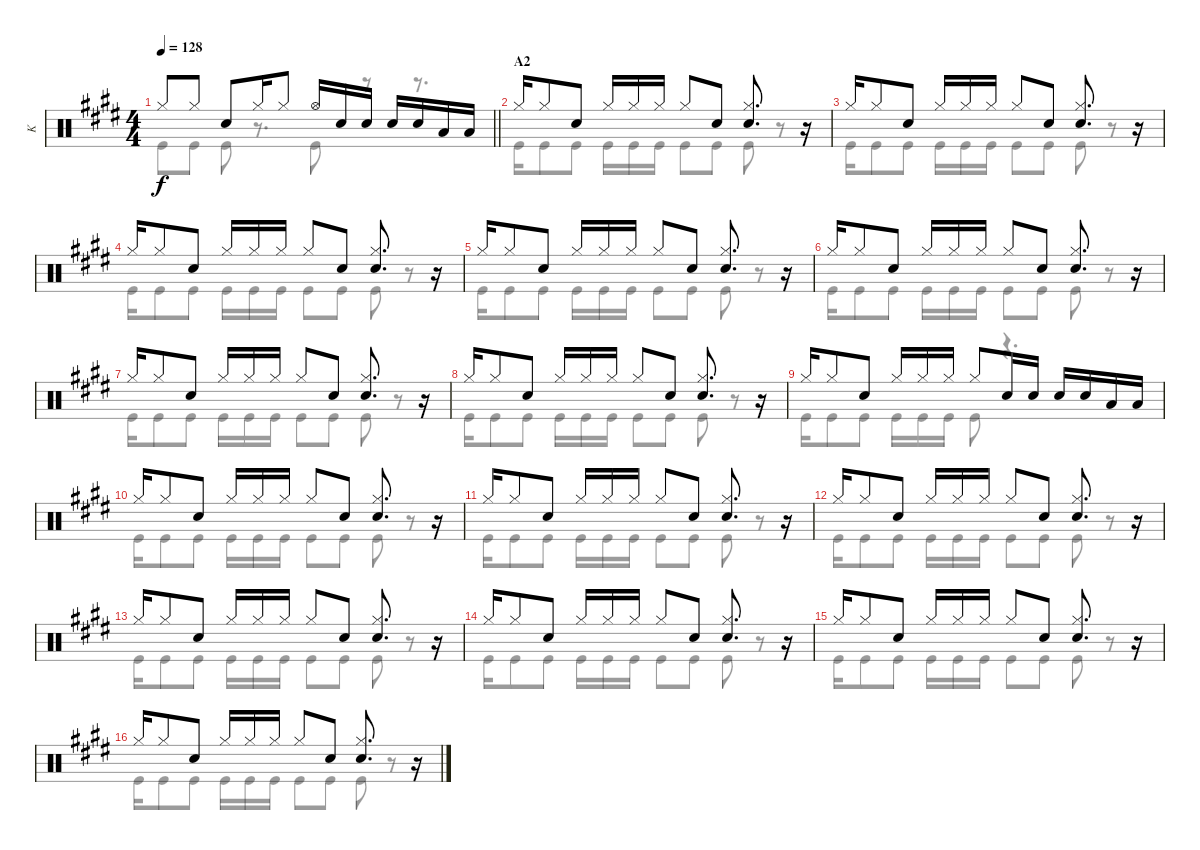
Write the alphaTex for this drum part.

\track ("K" "K") {instrument percussion}
\staff {score}
\articulation defaults
\voice
\ts (4 4)
\tempo 128
\clef neutral
\barLineRight lightlight
\ks e "Hi-Hat (closed)".8{dy f} "Hi-Hat (closed)".8 "Snare (hit) 2".8 "Hi-Hat (closed)".16 "Hi-Hat (closed)".8 "Hi-Hat (open)".16 "Snare (hit) 2".16 "Snare (hit) 2".16 "Snare (hit) 2".16 "Snare (hit) 2".16 "Low Tom (hit)".16 "Low Tom (hit)".16
|
\section ("" "A2")
"Hi-Hat (closed)".16 "Hi-Hat (closed)".8 "Snare (hit) 2".8 "Hi-Hat (closed)".16 "Hi-Hat (closed)".16 "Hi-Hat (closed)".16 "Hi-Hat (closed)".8 "Snare (hit) 2".8 ("Hi-Hat (closed)" "Snare (hit) 2").8{d} r.16 |
"Hi-Hat (closed)".16 "Hi-Hat (closed)".8 "Snare (hit) 2".8 "Hi-Hat (closed)".16 "Hi-Hat (closed)".16 "Hi-Hat (closed)".16 "Hi-Hat (closed)".8 "Snare (hit) 2".8 ("Hi-Hat (closed)" "Snare (hit) 2").8{d} r.16 |
"Hi-Hat (closed)".16 "Hi-Hat (closed)".8 "Snare (hit) 2".8 "Hi-Hat (closed)".16 "Hi-Hat (closed)".16 "Hi-Hat (closed)".16 "Hi-Hat (closed)".8 "Snare (hit) 2".8 ("Hi-Hat (closed)" "Snare (hit) 2").8{d} r.16 |
"Hi-Hat (closed)".16 "Hi-Hat (closed)".8 "Snare (hit) 2".8 "Hi-Hat (closed)".16 "Hi-Hat (closed)".16 "Hi-Hat (closed)".16 "Hi-Hat (closed)".8 "Snare (hit) 2".8 ("Hi-Hat (closed)" "Snare (hit) 2").8{d} r.16 |
"Hi-Hat (closed)".16 "Hi-Hat (closed)".8 "Snare (hit) 2".8 "Hi-Hat (closed)".16 "Hi-Hat (closed)".16 "Hi-Hat (closed)".16 "Hi-Hat (closed)".8 "Snare (hit) 2".8 ("Hi-Hat (closed)" "Snare (hit) 2").8{d} r.16 |
"Hi-Hat (closed)".16 "Hi-Hat (closed)".8 "Snare (hit) 2".8 "Hi-Hat (closed)".16 "Hi-Hat (closed)".16 "Hi-Hat (closed)".16 "Hi-Hat (closed)".8 "Snare (hit) 2".8 ("Hi-Hat (closed)" "Snare (hit) 2").8{d} r.16 |
"Hi-Hat (closed)".16 "Hi-Hat (closed)".8 "Snare (hit) 2".8 "Hi-Hat (closed)".16 "Hi-Hat (closed)".16 "Hi-Hat (closed)".16 "Hi-Hat (closed)".8 "Snare (hit) 2".8 ("Hi-Hat (closed)" "Snare (hit) 2").8{d} r.16 |
"Hi-Hat (closed)".16 "Hi-Hat (closed)".8 "Snare (hit) 2".8 "Hi-Hat (closed)".16 "Hi-Hat (closed)".16 "Hi-Hat (closed)".16 "Hi-Hat (closed)".8 "Snare (hit) 2".16 "Snare (hit) 2".16 "Snare (hit) 2".16 "Snare (hit) 2".16 "Low Tom (hit)".16 "Low Tom (hit)".16 |
"Hi-Hat (closed)".16 "Hi-Hat (closed)".8 "Snare (hit) 2".8 "Hi-Hat (closed)".16 "Hi-Hat (closed)".16 "Hi-Hat (closed)".16 "Hi-Hat (closed)".8 "Snare (hit) 2".8 ("Hi-Hat (closed)" "Snare (hit) 2").8{d} r.16 |
"Hi-Hat (closed)".16 "Hi-Hat (closed)".8 "Snare (hit) 2".8 "Hi-Hat (closed)".16 "Hi-Hat (closed)".16 "Hi-Hat (closed)".16 "Hi-Hat (closed)".8 "Snare (hit) 2".8 ("Hi-Hat (closed)" "Snare (hit) 2").8{d} r.16 |
"Hi-Hat (closed)".16 "Hi-Hat (closed)".8 "Snare (hit) 2".8 "Hi-Hat (closed)".16 "Hi-Hat (closed)".16 "Hi-Hat (closed)".16 "Hi-Hat (closed)".8 "Snare (hit) 2".8 ("Hi-Hat (closed)" "Snare (hit) 2").8{d} r.16 |
"Hi-Hat (closed)".16 "Hi-Hat (closed)".8 "Snare (hit) 2".8 "Hi-Hat (closed)".16 "Hi-Hat (closed)".16 "Hi-Hat (closed)".16 "Hi-Hat (closed)".8 "Snare (hit) 2".8 ("Hi-Hat (closed)" "Snare (hit) 2").8{d} r.16 |
"Hi-Hat (closed)".16 "Hi-Hat (closed)".8 "Snare (hit) 2".8 "Hi-Hat (closed)".16 "Hi-Hat (closed)".16 "Hi-Hat (closed)".16 "Hi-Hat (closed)".8 "Snare (hit) 2".8 ("Hi-Hat (closed)" "Snare (hit) 2").8{d} r.16 |
"Hi-Hat (closed)".16 "Hi-Hat (closed)".8 "Snare (hit) 2".8 "Hi-Hat (closed)".16 "Hi-Hat (closed)".16 "Hi-Hat (closed)".16 "Hi-Hat (closed)".8 "Snare (hit) 2".8 ("Hi-Hat (closed)" "Snare (hit) 2").8{d} r.16 |
"Hi-Hat (closed)".16 "Hi-Hat (closed)".8 "Snare (hit) 2".8 "Hi-Hat (closed)".16 "Hi-Hat (closed)".16 "Hi-Hat (closed)".16 "Hi-Hat (closed)".8 "Snare (hit) 2".8 ("Hi-Hat (closed)" "Snare (hit) 2").8{d} r.16
\voice
\clef neutral
\ottava regular
\simile none
\barLineRight lightlight
\ks e "Kick (hit)".8{dy f} "Kick (hit)".8 "Kick (hit)".8
r.8{d} "Kick (hit)".8 r.8 r.8{d} |
"Kick (hit)".16 "Kick (hit)".8 "Kick (hit)".8 "Kick (hit)".16 "Kick (hit)".16 "Kick (hit)".16 "Kick (hit)".8 "Kick (hit)".8 "Kick (hit)".8 r.8 |
"Kick (hit)".16 "Kick (hit)".8 "Kick (hit)".8 "Kick (hit)".16 "Kick (hit)".16 "Kick (hit)".16 "Kick (hit)".8 "Kick (hit)".8 "Kick (hit)".8 r.8 |
"Kick (hit)".16 "Kick (hit)".8 "Kick (hit)".8 "Kick (hit)".16 "Kick (hit)".16 "Kick (hit)".16 "Kick (hit)".8 "Kick (hit)".8 "Kick (hit)".8 r.8 |
"Kick (hit)".16 "Kick (hit)".8 "Kick (hit)".8 "Kick (hit)".16 "Kick (hit)".16 "Kick (hit)".16 "Kick (hit)".8 "Kick (hit)".8 "Kick (hit)".8 r.8 |
"Kick (hit)".16 "Kick (hit)".8 "Kick (hit)".8 "Kick (hit)".16 "Kick (hit)".16 "Kick (hit)".16 "Kick (hit)".8 "Kick (hit)".8 "Kick (hit)".8 r.8 |
"Kick (hit)".16 "Kick (hit)".8 "Kick (hit)".8 "Kick (hit)".16 "Kick (hit)".16 "Kick (hit)".16 "Kick (hit)".8 "Kick (hit)".8 "Kick (hit)".8 r.8 |
"Kick (hit)".16 "Kick (hit)".8 "Kick (hit)".8 "Kick (hit)".16 "Kick (hit)".16 "Kick (hit)".16 "Kick (hit)".8 "Kick (hit)".8 "Kick (hit)".8 r.8 |
"Kick (hit)".16 "Kick (hit)".8 "Kick (hit)".8 "Kick (hit)".16 "Kick (hit)".16 "Kick (hit)".16 "Kick (hit)".8 r.4{d} |
"Kick (hit)".16 "Kick (hit)".8 "Kick (hit)".8 "Kick (hit)".16 "Kick (hit)".16 "Kick (hit)".16 "Kick (hit)".8 "Kick (hit)".8 "Kick (hit)".8 r.8 |
"Kick (hit)".16 "Kick (hit)".8 "Kick (hit)".8 "Kick (hit)".16 "Kick (hit)".16 "Kick (hit)".16 "Kick (hit)".8 "Kick (hit)".8 "Kick (hit)".8 r.8 |
"Kick (hit)".16 "Kick (hit)".8 "Kick (hit)".8 "Kick (hit)".16 "Kick (hit)".16 "Kick (hit)".16 "Kick (hit)".8 "Kick (hit)".8 "Kick (hit)".8 r.8 |
"Kick (hit)".16 "Kick (hit)".8 "Kick (hit)".8 "Kick (hit)".16 "Kick (hit)".16 "Kick (hit)".16 "Kick (hit)".8 "Kick (hit)".8 "Kick (hit)".8 r.8 |
"Kick (hit)".16 "Kick (hit)".8 "Kick (hit)".8 "Kick (hit)".16 "Kick (hit)".16 "Kick (hit)".16 "Kick (hit)".8 "Kick (hit)".8 "Kick (hit)".8 r.8 |
"Kick (hit)".16 "Kick (hit)".8 "Kick (hit)".8 "Kick (hit)".16 "Kick (hit)".16 "Kick (hit)".16 "Kick (hit)".8 "Kick (hit)".8 "Kick (hit)".8 r.8 |
"Kick (hit)".16 "Kick (hit)".8 "Kick (hit)".8 "Kick (hit)".16 "Kick (hit)".16 "Kick (hit)".16 "Kick (hit)".8 "Kick (hit)".8 "Kick (hit)".8 r.8
